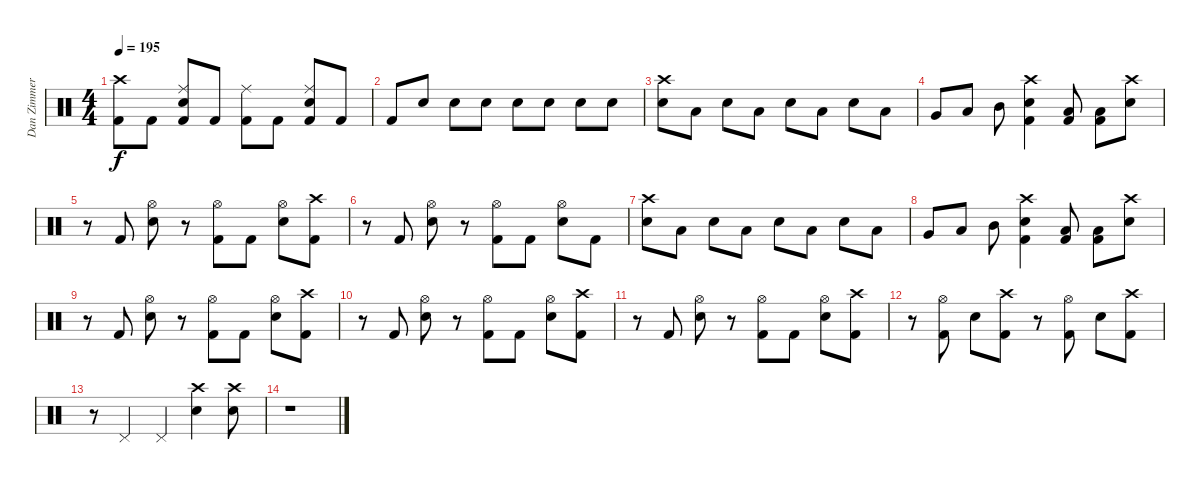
\track ("Dan Zimmermann" "Dan Zimmer") {instrument percussion}
\staff {score}
\articulation defaults
\ts (4 4)
\tempo 195
\clef neutral
\ks c
("Crash high (hit)" "Kick (hit) 2").8{dy f} "Kick (hit) 2".8 ("Ride (middle)" "Electric Snare (hit)" "Kick (hit) 2").8 "Kick (hit) 2".8 ("Ride (middle)" "Kick (hit) 2").8 "Kick (hit) 2".8 ("Ride (middle)" "Electric Snare (hit)" "Kick (hit) 2").8 "Kick (hit) 2".8 |
"Kick (hit) 2".8 "Electric Snare (hit)".8 "Electric Snare (hit)".8 "Electric Snare (hit)".8 "Electric Snare (hit)".8 "Electric Snare (hit)".8 "Electric Snare (hit)".8 "Electric Snare (hit)".8 |
("Crash high (hit)" "Electric Snare (hit)").8 "Low Tom (hit)".8 "Electric Snare (hit)".8 "Low Tom (hit)".8 "Electric Snare (hit)".8 "Low Tom (hit)".8 "Electric Snare (hit)".8 "Low Tom (hit)".8 |
"Very Low Tom (hit)".8 "Low Tom (hit)".8 "Mid Tom (hit)".8 ("Crash high (hit)" "Electric Snare (hit)" "Kick (hit) 2").4 ("Low Floor Tom (hit)" "Kick (hit) 2").8 ("Low Floor Tom (hit)" "Kick (hit) 2").8 ("Crash high (hit)" "Electric Snare (hit)").8 |
r.8 "Kick (hit) 2".8 ("Hi-Hat (open)" "Electric Snare (hit)").8 r.8 ("Hi-Hat (open)" "Kick (hit) 2").8 "Kick (hit) 2".8 ("Hi-Hat (open)" "Electric Snare (hit)").8 ("Crash high (hit)" "Kick (hit) 2").8 |
r.8 "Kick (hit) 2".8 ("Hi-Hat (open)" "Electric Snare (hit)").8 r.8 ("Hi-Hat (open)" "Kick (hit) 2").8 "Kick (hit) 2".8 ("Hi-Hat (open)" "Electric Snare (hit)").8 "Kick (hit) 2".8 |
("Crash high (hit)" "Electric Snare (hit)").8 "Low Tom (hit)".8 "Electric Snare (hit)".8 "Low Tom (hit)".8 "Electric Snare (hit)".8 "Low Tom (hit)".8 "Electric Snare (hit)".8 "Low Tom (hit)".8 |
"Very Low Tom (hit)".8 "Low Tom (hit)".8 "Mid Tom (hit)".8 ("Crash high (hit)" "Electric Snare (hit)" "Kick (hit) 2").4 ("Low Floor Tom (hit)" "Kick (hit) 2").8 ("Low Floor Tom (hit)" "Kick (hit) 2").8 ("Crash high (hit)" "Electric Snare (hit)").8 |
r.8 "Kick (hit) 2".8 ("Hi-Hat (open)" "Electric Snare (hit)").8 r.8 ("Hi-Hat (open)" "Kick (hit) 2").8 "Kick (hit) 2".8 ("Hi-Hat (open)" "Electric Snare (hit)").8 ("Crash high (hit)" "Kick (hit) 2").8 |
r.8 "Kick (hit) 2".8 ("Hi-Hat (open)" "Electric Snare (hit)").8 r.8 ("Hi-Hat (open)" "Kick (hit) 2").8 "Kick (hit) 2".8 ("Hi-Hat (open)" "Electric Snare (hit)").8 ("Crash high (hit)" "Kick (hit) 2").8 |
r.8 "Kick (hit) 2".8 ("Hi-Hat (open)" "Electric Snare (hit)").8 r.8 ("Hi-Hat (open)" "Kick (hit) 2").8 "Kick (hit) 2".8 ("Hi-Hat (open)" "Electric Snare (hit)").8 ("Crash high (hit)" "Kick (hit) 2").8 |
r.8 ("Hi-Hat (open)" "Kick (hit) 2").8 "Electric Snare (hit)".8 ("Crash high (hit)" "Kick (hit) 2").8 r.8 ("Hi-Hat (open)" "Kick (hit) 2").8 "Electric Snare (hit)".8 ("Crash high (hit)" "Kick (hit) 2").8 |
r.8 "Pedal Hi-Hat (hit)".4 "Pedal Hi-Hat (hit)".4 ("Crash high (hit)" "Electric Snare (hit)").4 ("Crash high (hit)" "Electric Snare (hit)").8 |
r.1
